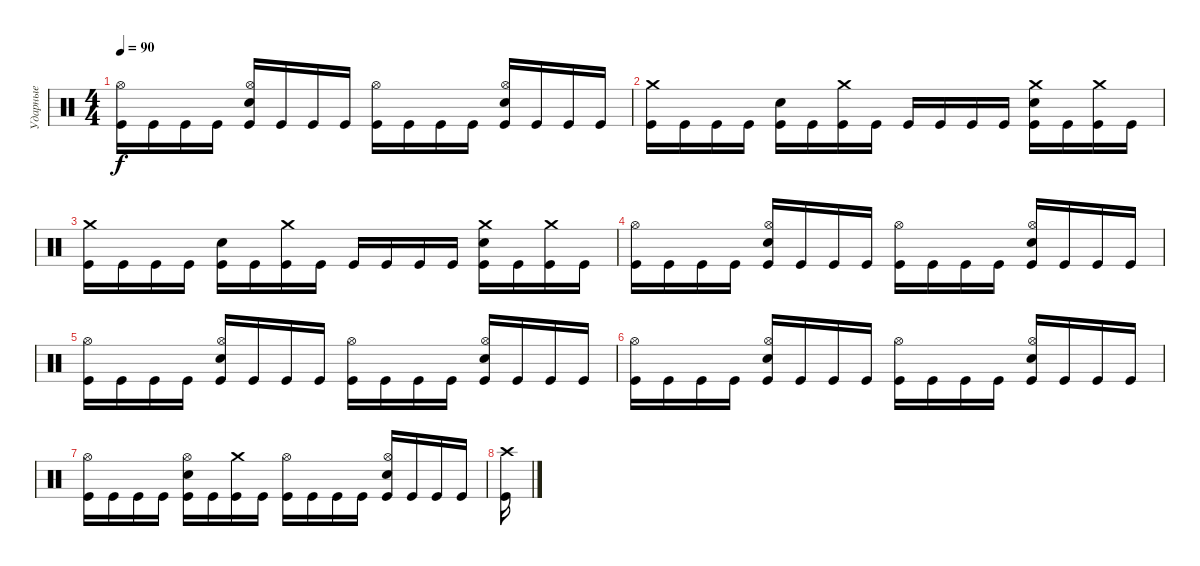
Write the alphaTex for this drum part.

\track ("Ударные" "Ударные") {instrument percussion}
\staff {score}
\articulation defaults
\ts (4 4)
\tempo 90
\clef neutral
\ks c
("Kick (hit)" "Hi-Hat (open)").16{dy f} "Kick (hit)".16 "Kick (hit)".16 "Kick (hit)".16 ("Kick (hit)" "Electric Snare (hit)" "Hi-Hat (open)").16 "Kick (hit)".16 "Kick (hit)".16 "Kick (hit)".16 ("Kick (hit)" "Hi-Hat (open)").16 "Kick (hit)".16 "Kick (hit)".16 "Kick (hit)".16 ("Kick (hit)" "Electric Snare (hit)" "Hi-Hat (open)").16 "Kick (hit)".16 "Kick (hit)".16 "Kick (hit)".16 |
("Kick (hit)" "Crash medium (hit)").16 "Kick (hit)".16 "Kick (hit)".16 "Kick (hit)".16 ("Kick (hit)" "Electric Snare (hit)").16 "Kick (hit)".16 ("Kick (hit)" "Crash medium (hit)").16 "Kick (hit)".16 "Kick (hit)".16 "Kick (hit)".16 "Kick (hit)".16 "Kick (hit)".16 ("Kick (hit)" "Electric Snare (hit)" "Crash medium (hit)").16 "Kick (hit)".16 ("Kick (hit)" "Crash medium (hit)").16 "Kick (hit)".16 |
("Kick (hit)" "Crash medium (hit)").16 "Kick (hit)".16 "Kick (hit)".16 "Kick (hit)".16 ("Kick (hit)" "Electric Snare (hit)").16 "Kick (hit)".16 ("Kick (hit)" "Crash medium (hit)").16 "Kick (hit)".16 "Kick (hit)".16 "Kick (hit)".16 "Kick (hit)".16 "Kick (hit)".16 ("Kick (hit)" "Electric Snare (hit)" "Crash medium (hit)").16 "Kick (hit)".16 ("Kick (hit)" "Crash medium (hit)").16 "Kick (hit)".16 |
("Kick (hit)" "Hi-Hat (open)").16 "Kick (hit)".16 "Kick (hit)".16 "Kick (hit)".16 ("Kick (hit)" "Electric Snare (hit)" "Hi-Hat (open)").16 "Kick (hit)".16 "Kick (hit)".16 "Kick (hit)".16 ("Kick (hit)" "Hi-Hat (open)").16 "Kick (hit)".16 "Kick (hit)".16 "Kick (hit)".16 ("Kick (hit)" "Electric Snare (hit)" "Hi-Hat (open)").16 "Kick (hit)".16 "Kick (hit)".16 "Kick (hit)".16 |
("Kick (hit)" "Hi-Hat (open)").16 "Kick (hit)".16 "Kick (hit)".16 "Kick (hit)".16 ("Kick (hit)" "Electric Snare (hit)" "Hi-Hat (open)").16 "Kick (hit)".16 "Kick (hit)".16 "Kick (hit)".16 ("Kick (hit)" "Hi-Hat (open)").16 "Kick (hit)".16 "Kick (hit)".16 "Kick (hit)".16 ("Kick (hit)" "Electric Snare (hit)" "Hi-Hat (open)").16 "Kick (hit)".16 "Kick (hit)".16 "Kick (hit)".16 |
("Kick (hit)" "Hi-Hat (open)").16 "Kick (hit)".16 "Kick (hit)".16 "Kick (hit)".16 ("Kick (hit)" "Electric Snare (hit)" "Hi-Hat (open)").16 "Kick (hit)".16 "Kick (hit)".16 "Kick (hit)".16 ("Kick (hit)" "Hi-Hat (open)").16 "Kick (hit)".16 "Kick (hit)".16 "Kick (hit)".16 ("Kick (hit)" "Electric Snare (hit)" "Hi-Hat (open)").16 "Kick (hit)".16 "Kick (hit)".16 "Kick (hit)".16 |
("Kick (hit)" "Hi-Hat (open)").16 "Kick (hit)".16 "Kick (hit)".16 "Kick (hit)".16 ("Kick (hit)" "Electric Snare (hit)" "Hi-Hat (open)").16 "Kick (hit)".16 ("Kick (hit)" "Crash medium (hit)").16 "Kick (hit)".16 ("Kick (hit)" "Hi-Hat (open)").16 "Kick (hit)".16 "Kick (hit)".16 "Kick (hit)".16 ("Kick (hit)" "Electric Snare (hit)" "Hi-Hat (open)").16 "Kick (hit)".16 "Kick (hit)".16 "Kick (hit)".16 |
("Kick (hit)" "Crash high (hit)").16
